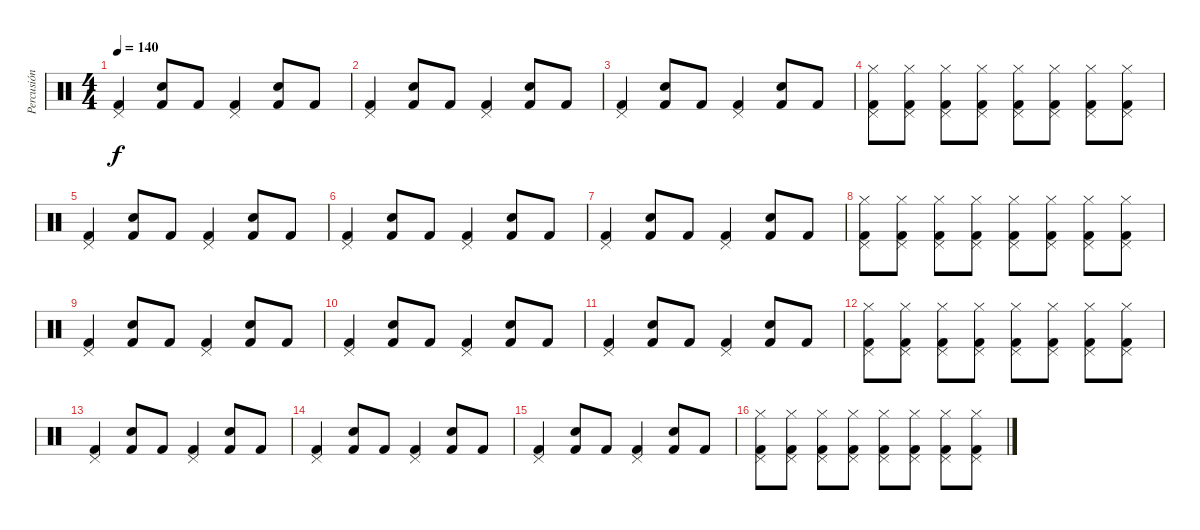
\track ("Percusión" "Percusión") {instrument percussion}
\staff {score}
\articulation defaults
\ts (4 4)
\tempo 140
\clef neutral
\ks c
("Kick (hit) 2" "Pedal Hi-Hat (hit)").4{dy f} ("Kick (hit) 2" "Snare (hit) 2").8 "Kick (hit) 2".8 ("Kick (hit) 2" "Pedal Hi-Hat (hit)").4 ("Kick (hit) 2" "Snare (hit) 2").8 "Kick (hit) 2".8 |
("Kick (hit) 2" "Pedal Hi-Hat (hit)").4 ("Kick (hit) 2" "Snare (hit) 2").8 "Kick (hit) 2".8 ("Kick (hit) 2" "Pedal Hi-Hat (hit)").4 ("Kick (hit) 2" "Snare (hit) 2").8 "Kick (hit) 2".8 |
("Kick (hit) 2" "Pedal Hi-Hat (hit)").4 ("Kick (hit) 2" "Snare (hit) 2").8 "Kick (hit) 2".8 ("Kick (hit) 2" "Pedal Hi-Hat (hit)").4 ("Kick (hit) 2" "Snare (hit) 2").8 "Kick (hit) 2".8 |
("Kick (hit) 2" "Hi-Hat (closed)" "Pedal Hi-Hat (hit)").8 ("Kick (hit) 2" "Hi-Hat (closed)" "Pedal Hi-Hat (hit)").8 ("Kick (hit) 2" "Hi-Hat (closed)" "Pedal Hi-Hat (hit)").8 ("Kick (hit) 2" "Hi-Hat (closed)" "Pedal Hi-Hat (hit)").8 ("Kick (hit) 2" "Hi-Hat (closed)" "Pedal Hi-Hat (hit)").8 ("Kick (hit) 2" "Hi-Hat (closed)" "Pedal Hi-Hat (hit)").8 ("Kick (hit) 2" "Hi-Hat (closed)" "Pedal Hi-Hat (hit)").8 ("Kick (hit) 2" "Hi-Hat (closed)" "Pedal Hi-Hat (hit)").8 |
("Kick (hit) 2" "Pedal Hi-Hat (hit)").4 ("Kick (hit) 2" "Snare (hit) 2").8 "Kick (hit) 2".8 ("Kick (hit) 2" "Pedal Hi-Hat (hit)").4 ("Kick (hit) 2" "Snare (hit) 2").8 "Kick (hit) 2".8 |
("Kick (hit) 2" "Pedal Hi-Hat (hit)").4 ("Kick (hit) 2" "Snare (hit) 2").8 "Kick (hit) 2".8 ("Kick (hit) 2" "Pedal Hi-Hat (hit)").4 ("Kick (hit) 2" "Snare (hit) 2").8 "Kick (hit) 2".8 |
("Kick (hit) 2" "Pedal Hi-Hat (hit)").4 ("Kick (hit) 2" "Snare (hit) 2").8 "Kick (hit) 2".8 ("Kick (hit) 2" "Pedal Hi-Hat (hit)").4 ("Kick (hit) 2" "Snare (hit) 2").8 "Kick (hit) 2".8 |
("Kick (hit) 2" "Hi-Hat (closed)" "Pedal Hi-Hat (hit)").8 ("Kick (hit) 2" "Hi-Hat (closed)" "Pedal Hi-Hat (hit)").8 ("Kick (hit) 2" "Hi-Hat (closed)" "Pedal Hi-Hat (hit)").8 ("Kick (hit) 2" "Hi-Hat (closed)" "Pedal Hi-Hat (hit)").8 ("Kick (hit) 2" "Hi-Hat (closed)" "Pedal Hi-Hat (hit)").8 ("Kick (hit) 2" "Hi-Hat (closed)" "Pedal Hi-Hat (hit)").8 ("Kick (hit) 2" "Hi-Hat (closed)" "Pedal Hi-Hat (hit)").8 ("Kick (hit) 2" "Hi-Hat (closed)" "Pedal Hi-Hat (hit)").8 |
("Kick (hit) 2" "Pedal Hi-Hat (hit)").4 ("Kick (hit) 2" "Snare (hit) 2").8 "Kick (hit) 2".8 ("Kick (hit) 2" "Pedal Hi-Hat (hit)").4 ("Kick (hit) 2" "Snare (hit) 2").8 "Kick (hit) 2".8 |
("Kick (hit) 2" "Pedal Hi-Hat (hit)").4 ("Kick (hit) 2" "Snare (hit) 2").8 "Kick (hit) 2".8 ("Kick (hit) 2" "Pedal Hi-Hat (hit)").4 ("Kick (hit) 2" "Snare (hit) 2").8 "Kick (hit) 2".8 |
("Kick (hit) 2" "Pedal Hi-Hat (hit)").4 ("Kick (hit) 2" "Snare (hit) 2").8 "Kick (hit) 2".8 ("Kick (hit) 2" "Pedal Hi-Hat (hit)").4 ("Kick (hit) 2" "Snare (hit) 2").8 "Kick (hit) 2".8 |
("Kick (hit) 2" "Hi-Hat (closed)" "Pedal Hi-Hat (hit)").8 ("Kick (hit) 2" "Hi-Hat (closed)" "Pedal Hi-Hat (hit)").8 ("Kick (hit) 2" "Hi-Hat (closed)" "Pedal Hi-Hat (hit)").8 ("Kick (hit) 2" "Hi-Hat (closed)" "Pedal Hi-Hat (hit)").8 ("Kick (hit) 2" "Hi-Hat (closed)" "Pedal Hi-Hat (hit)").8 ("Kick (hit) 2" "Hi-Hat (closed)" "Pedal Hi-Hat (hit)").8 ("Kick (hit) 2" "Hi-Hat (closed)" "Pedal Hi-Hat (hit)").8 ("Kick (hit) 2" "Hi-Hat (closed)" "Pedal Hi-Hat (hit)").8 |
("Kick (hit) 2" "Pedal Hi-Hat (hit)").4 ("Kick (hit) 2" "Snare (hit) 2").8 "Kick (hit) 2".8 ("Kick (hit) 2" "Pedal Hi-Hat (hit)").4 ("Kick (hit) 2" "Snare (hit) 2").8 "Kick (hit) 2".8 |
("Kick (hit) 2" "Pedal Hi-Hat (hit)").4 ("Kick (hit) 2" "Snare (hit) 2").8 "Kick (hit) 2".8 ("Kick (hit) 2" "Pedal Hi-Hat (hit)").4 ("Kick (hit) 2" "Snare (hit) 2").8 "Kick (hit) 2".8 |
("Kick (hit) 2" "Pedal Hi-Hat (hit)").4 ("Kick (hit) 2" "Snare (hit) 2").8 "Kick (hit) 2".8 ("Kick (hit) 2" "Pedal Hi-Hat (hit)").4 ("Kick (hit) 2" "Snare (hit) 2").8 "Kick (hit) 2".8 |
("Kick (hit) 2" "Hi-Hat (closed)" "Pedal Hi-Hat (hit)").8 ("Kick (hit) 2" "Hi-Hat (closed)" "Pedal Hi-Hat (hit)").8 ("Kick (hit) 2" "Hi-Hat (closed)" "Pedal Hi-Hat (hit)").8 ("Kick (hit) 2" "Hi-Hat (closed)" "Pedal Hi-Hat (hit)").8 ("Kick (hit) 2" "Hi-Hat (closed)" "Pedal Hi-Hat (hit)").8 ("Kick (hit) 2" "Hi-Hat (closed)" "Pedal Hi-Hat (hit)").8 ("Kick (hit) 2" "Hi-Hat (closed)" "Pedal Hi-Hat (hit)").8 ("Kick (hit) 2" "Hi-Hat (closed)" "Pedal Hi-Hat (hit)").8
